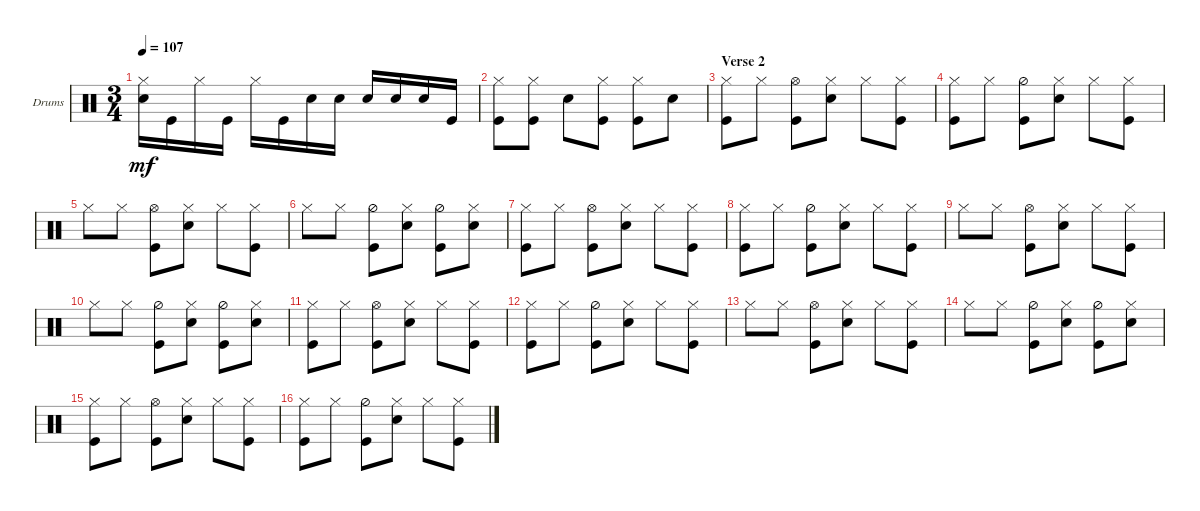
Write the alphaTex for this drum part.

\defaultSystemsLayout 4
\bracketExtendMode groupsimilarinstruments
\firstSystemTrackNameOrientation horizontal
\otherSystemsTrackNameOrientation horizontal
\track ("Drums" "Drums") {instrument percussion}
\staff {score}
\articulation defaults
\ts (3 4)
\tempo 107
\clef neutral
\ks c
("Snare (hit) 2" "Hi-Hat (closed)").16{dy mf} "Kick (hit)".16 "Hi-Hat (closed)".16 "Kick (hit)".16 "Hi-Hat (closed)".16 "Kick (hit)".16 "Snare (hit) 2".16 "Snare (hit) 2".16 "Snare (hit) 2".16 "Snare (hit) 2".16 "Snare (hit) 2".16 "Kick (hit)".16 |
("Kick (hit)" "Hi-Hat (closed)").8 ("Kick (hit)" "Hi-Hat (closed)").8 "Snare (hit) 2".8 ("Kick (hit)" "Hi-Hat (closed)").8 ("Kick (hit)" "Hi-Hat (closed)").8 "Snare (hit) 2".8 |
\section ("" "Verse 2")
("Hi-Hat (closed)" "Kick (hit)").8 "Hi-Hat (closed)".8 ("Hi-Hat (open)" "Kick (hit)").8 ("Snare (hit) 2" "Hi-Hat (closed)").8 "Hi-Hat (closed)".8 ("Hi-Hat (closed)" "Kick (hit)").8 |
("Hi-Hat (closed)" "Kick (hit)").8 "Hi-Hat (closed)".8 ("Hi-Hat (half)" "Kick (hit)").8 ("Hi-Hat (closed)" "Snare (hit) 2").8 "Hi-Hat (closed)".8 ("Hi-Hat (closed)" "Kick (hit)").8 |
"Hi-Hat (closed)".8 "Hi-Hat (closed)".8 ("Hi-Hat (open)" "Kick (hit)").8 ("Snare (hit) 2" "Hi-Hat (closed)").8 "Hi-Hat (closed)".8 ("Kick (hit)" "Hi-Hat (closed)").8 |
"Hi-Hat (closed)".8 "Hi-Hat (closed)".8 ("Hi-Hat (half)" "Kick (hit)").8 ("Hi-Hat (closed)" "Snare (hit) 2").8 ("Hi-Hat (half)" "Kick (hit)").8 ("Hi-Hat (closed)" "Snare (hit) 2").8 |
("Hi-Hat (closed)" "Kick (hit)").8 "Hi-Hat (closed)".8 ("Hi-Hat (open)" "Kick (hit)").8 ("Snare (hit) 2" "Hi-Hat (closed)").8 "Hi-Hat (closed)".8 ("Hi-Hat (closed)" "Kick (hit)").8 |
("Hi-Hat (closed)" "Kick (hit)").8 "Hi-Hat (closed)".8 ("Hi-Hat (half)" "Kick (hit)").8 ("Hi-Hat (closed)" "Snare (hit) 2").8 "Hi-Hat (closed)".8 ("Hi-Hat (closed)" "Kick (hit)").8 |
"Hi-Hat (closed)".8 "Hi-Hat (closed)".8 ("Hi-Hat (open)" "Kick (hit)").8 ("Snare (hit) 2" "Hi-Hat (closed)").8 "Hi-Hat (closed)".8 ("Kick (hit)" "Hi-Hat (closed)").8 |
"Hi-Hat (closed)".8 "Hi-Hat (closed)".8 ("Hi-Hat (half)" "Kick (hit)").8 ("Hi-Hat (closed)" "Snare (hit) 2").8 ("Hi-Hat (half)" "Kick (hit)").8 ("Hi-Hat (closed)" "Snare (hit) 2").8 |
("Hi-Hat (closed)" "Kick (hit)").8 "Hi-Hat (closed)".8 ("Hi-Hat (open)" "Kick (hit)").8 ("Snare (hit) 2" "Hi-Hat (closed)").8 "Hi-Hat (closed)".8 ("Hi-Hat (closed)" "Kick (hit)").8 |
("Hi-Hat (closed)" "Kick (hit)").8 "Hi-Hat (closed)".8 ("Hi-Hat (half)" "Kick (hit)").8 ("Hi-Hat (closed)" "Snare (hit) 2").8 "Hi-Hat (closed)".8 ("Hi-Hat (closed)" "Kick (hit)").8 |
"Hi-Hat (closed)".8 "Hi-Hat (closed)".8 ("Hi-Hat (open)" "Kick (hit)").8 ("Snare (hit) 2" "Hi-Hat (closed)").8 "Hi-Hat (closed)".8 ("Kick (hit)" "Hi-Hat (closed)").8 |
"Hi-Hat (closed)".8 "Hi-Hat (closed)".8 ("Hi-Hat (half)" "Kick (hit)").8 ("Hi-Hat (closed)" "Snare (hit) 2").8 ("Hi-Hat (half)" "Kick (hit)").8 ("Hi-Hat (closed)" "Snare (hit) 2").8 |
("Hi-Hat (closed)" "Kick (hit)").8 "Hi-Hat (closed)".8 ("Hi-Hat (open)" "Kick (hit)").8 ("Snare (hit) 2" "Hi-Hat (closed)").8 "Hi-Hat (closed)".8 ("Hi-Hat (closed)" "Kick (hit)").8 |
("Hi-Hat (closed)" "Kick (hit)").8 "Hi-Hat (closed)".8 ("Hi-Hat (half)" "Kick (hit)").8 ("Hi-Hat (closed)" "Snare (hit) 2").8 "Hi-Hat (closed)".8 ("Hi-Hat (closed)" "Kick (hit)").8
